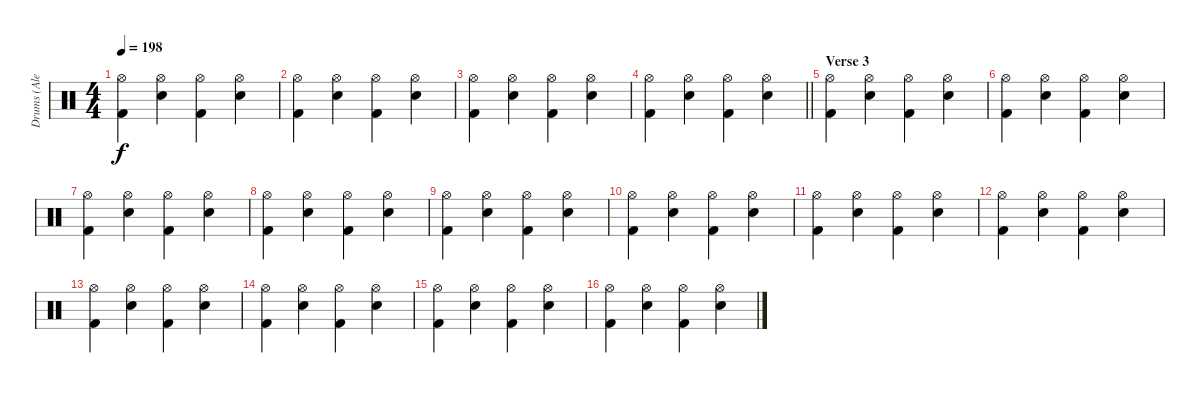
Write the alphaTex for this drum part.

\track ("Drums (Alex Van Halen)" "Drums (Ale") {instrument percussion}
\staff {score}
\articulation defaults
\ts (4 4)
\tempo 198
\clef neutral
\ks c
("Kick (hit) 2" "Hi-Hat (open)").4{dy f} ("Snare (hit) 2" "Hi-Hat (open)").4 ("Kick (hit) 2" "Hi-Hat (open)").4 ("Snare (hit) 2" "Hi-Hat (open)").4 |
("Kick (hit) 2" "Hi-Hat (open)").4 ("Snare (hit) 2" "Hi-Hat (open)").4 ("Kick (hit) 2" "Hi-Hat (open)").4 ("Snare (hit) 2" "Hi-Hat (open)").4 |
("Kick (hit) 2" "Hi-Hat (open)").4 ("Snare (hit) 2" "Hi-Hat (open)").4 ("Kick (hit) 2" "Hi-Hat (open)").4 ("Snare (hit) 2" "Hi-Hat (open)").4 |
\barLineRight lightlight
("Kick (hit) 2" "Hi-Hat (open)").4 ("Snare (hit) 2" "Hi-Hat (open)").4 ("Kick (hit) 2" "Hi-Hat (open)").4 ("Snare (hit) 2" "Hi-Hat (open)").4 |
\section ("" "Verse 3")
("Kick (hit) 2" "Hi-Hat (open)").4 ("Snare (hit) 2" "Hi-Hat (open)").4 ("Kick (hit) 2" "Hi-Hat (open)").4 ("Snare (hit) 2" "Hi-Hat (open)").4 |
("Kick (hit) 2" "Hi-Hat (open)").4 ("Snare (hit) 2" "Hi-Hat (open)").4 ("Kick (hit) 2" "Hi-Hat (open)").4 ("Snare (hit) 2" "Hi-Hat (open)").4 |
("Kick (hit) 2" "Hi-Hat (open)").4 ("Snare (hit) 2" "Hi-Hat (open)").4 ("Kick (hit) 2" "Hi-Hat (open)").4 ("Snare (hit) 2" "Hi-Hat (open)").4 |
("Kick (hit) 2" "Hi-Hat (open)").4 ("Snare (hit) 2" "Hi-Hat (open)").4 ("Kick (hit) 2" "Hi-Hat (open)").4 ("Snare (hit) 2" "Hi-Hat (open)").4 |
("Kick (hit) 2" "Hi-Hat (open)").4 ("Snare (hit) 2" "Hi-Hat (open)").4 ("Kick (hit) 2" "Hi-Hat (open)").4 ("Snare (hit) 2" "Hi-Hat (open)").4 |
("Kick (hit) 2" "Hi-Hat (open)").4 ("Snare (hit) 2" "Hi-Hat (open)").4 ("Kick (hit) 2" "Hi-Hat (open)").4 ("Snare (hit) 2" "Hi-Hat (open)").4 |
("Kick (hit) 2" "Hi-Hat (open)").4 ("Snare (hit) 2" "Hi-Hat (open)").4 ("Kick (hit) 2" "Hi-Hat (open)").4 ("Snare (hit) 2" "Hi-Hat (open)").4 |
("Kick (hit) 2" "Hi-Hat (open)").4 ("Snare (hit) 2" "Hi-Hat (open)").4 ("Kick (hit) 2" "Hi-Hat (open)").4 ("Snare (hit) 2" "Hi-Hat (open)").4 |
("Kick (hit) 2" "Hi-Hat (open)").4 ("Snare (hit) 2" "Hi-Hat (open)").4 ("Kick (hit) 2" "Hi-Hat (open)").4 ("Snare (hit) 2" "Hi-Hat (open)").4 |
("Kick (hit) 2" "Hi-Hat (open)").4 ("Snare (hit) 2" "Hi-Hat (open)").4 ("Kick (hit) 2" "Hi-Hat (open)").4 ("Snare (hit) 2" "Hi-Hat (open)").4 |
("Kick (hit) 2" "Hi-Hat (open)").4 ("Snare (hit) 2" "Hi-Hat (open)").4 ("Kick (hit) 2" "Hi-Hat (open)").4 ("Snare (hit) 2" "Hi-Hat (open)").4 |
("Kick (hit) 2" "Hi-Hat (open)").4 ("Snare (hit) 2" "Hi-Hat (open)").4 ("Kick (hit) 2" "Hi-Hat (open)").4 ("Snare (hit) 2" "Hi-Hat (open)").4
